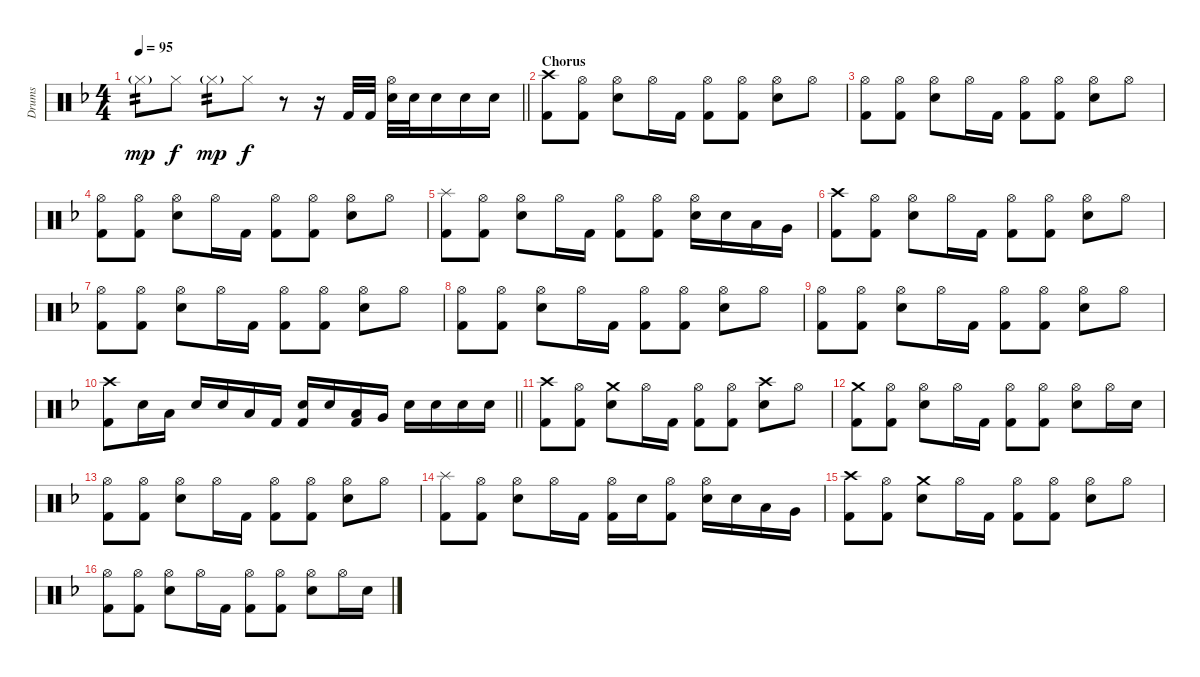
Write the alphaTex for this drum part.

\track ("Drums" "Drums") {instrument percussion}
\staff {score}
\articulation defaults
\ts (4 4)
\tempo 95
\clef neutral
\barLineRight lightlight
\ks f "Hi-Hat (closed)"{g}.8{tp 2 dy mp} "Hi-Hat (closed)".8{dy f} "Hi-Hat (closed)"{g}.8{tp 2 dy mp} "Hi-Hat (closed)".8{dy f}
r.8 r.16 "Kick (hit) 2".32 "Kick (hit) 2".32 ("Hi-Hat (open)" "Electric Snare (hit)").32 "Electric Snare (hit)".32 "Electric Snare (hit)".16 "Electric Snare (hit)".16 "Electric Snare (hit)".16 |
\section ("" "Chorus")
("Crash high (hit)" "Kick (hit) 2").8 ("Hi-Hat (open)" "Kick (hit) 2").8 ("Hi-Hat (open)" "Electric Snare (hit)").8 "Hi-Hat (open)".16 "Kick (hit) 2".16 ("Hi-Hat (open)" "Kick (hit) 2").8 ("Hi-Hat (open)" "Kick (hit) 2").8 ("Hi-Hat (open)" "Electric Snare (hit)").8 "Hi-Hat (open)".8 |
("Hi-Hat (open)" "Kick (hit) 2").8 ("Hi-Hat (open)" "Kick (hit) 2").8 ("Hi-Hat (open)" "Electric Snare (hit)").8 "Hi-Hat (open)".16 "Kick (hit) 2".16 ("Hi-Hat (open)" "Kick (hit) 2").8 ("Hi-Hat (open)" "Kick (hit) 2").8 ("Hi-Hat (open)" "Electric Snare (hit)").8 "Hi-Hat (open)".8 |
("Hi-Hat (open)" "Kick (hit) 2").8 ("Hi-Hat (open)" "Kick (hit) 2").8 ("Hi-Hat (open)" "Electric Snare (hit)").8 "Hi-Hat (open)".16 "Kick (hit) 2".16 ("Hi-Hat (open)" "Kick (hit) 2").8 ("Hi-Hat (open)" "Kick (hit) 2").8 ("Hi-Hat (open)" "Electric Snare (hit)").8 "Hi-Hat (open)".8 |
("Splash (hit)" "Kick (hit) 2").8 ("Hi-Hat (open)" "Kick (hit) 2").8 ("Hi-Hat (open)" "Electric Snare (hit)").8 "Hi-Hat (open)".16 "Kick (hit) 2".16 ("Hi-Hat (open)" "Kick (hit) 2").8 ("Hi-Hat (open)" "Kick (hit) 2").8 ("Hi-Hat (open)" "Electric Snare (hit)").16 "Electric Snare (hit)".16 "Low Tom (hit)".16 "Very Low Tom (hit)".16 |
("Crash high (hit)" "Kick (hit) 2").8 ("Hi-Hat (open)" "Kick (hit) 2").8 ("Hi-Hat (open)" "Electric Snare (hit)").8 "Hi-Hat (open)".16 "Kick (hit) 2".16 ("Hi-Hat (open)" "Kick (hit) 2").8 ("Hi-Hat (open)" "Kick (hit) 2").8 ("Hi-Hat (open)" "Electric Snare (hit)").8 "Hi-Hat (open)".8 |
("Hi-Hat (open)" "Kick (hit) 2").8 ("Hi-Hat (open)" "Kick (hit) 2").8 ("Hi-Hat (open)" "Electric Snare (hit)").8 "Hi-Hat (open)".16 "Kick (hit) 2".16 ("Hi-Hat (open)" "Kick (hit) 2").8 ("Hi-Hat (open)" "Kick (hit) 2").8 ("Hi-Hat (open)" "Electric Snare (hit)").8 "Hi-Hat (open)".8 |
("Hi-Hat (open)" "Kick (hit) 2").8 ("Hi-Hat (open)" "Kick (hit) 2").8 ("Hi-Hat (open)" "Electric Snare (hit)").8 "Hi-Hat (open)".16 "Kick (hit) 2".16 ("Hi-Hat (open)" "Kick (hit) 2").8 ("Hi-Hat (open)" "Kick (hit) 2").8 ("Hi-Hat (open)" "Electric Snare (hit)").8 "Hi-Hat (open)".8 |
("Hi-Hat (open)" "Kick (hit) 2").8 ("Hi-Hat (open)" "Kick (hit) 2").8 ("Hi-Hat (open)" "Electric Snare (hit)").8 "Hi-Hat (open)".16 "Kick (hit) 2".16 ("Hi-Hat (open)" "Kick (hit) 2").8 ("Hi-Hat (open)" "Kick (hit) 2").8 ("Hi-Hat (open)" "Electric Snare (hit)").8 "Hi-Hat (open)".8 |
\barLineRight lightlight
("Crash high (hit)" "Kick (hit) 2").8 "Electric Snare (hit)".16 "Low Tom (hit)".16 "Electric Snare (hit)".16 "Electric Snare (hit)".16 "Low Tom (hit)".16 "Kick (hit) 2".16 ("Electric Snare (hit)" "Kick (hit) 2").16 "Electric Snare (hit)".16 ("Low Tom (hit)" "Kick (hit) 2").16 "Very Low Tom (hit)".16 "Electric Snare (hit)".16 "Electric Snare (hit)".16 "Electric Snare (hit)".16 "Electric Snare (hit)".16 |
\section ("" "")
("Crash high (hit)" "Kick (hit) 2").8 ("Hi-Hat (open)" "Kick (hit) 2").8 ("Crash medium (hit)" "Electric Snare (hit)").8 "Hi-Hat (open)".16 "Kick (hit) 2".16 ("Hi-Hat (open)" "Kick (hit) 2").8 ("Hi-Hat (open)" "Kick (hit) 2").8 ("Crash high (hit)" "Electric Snare (hit)").8 "Hi-Hat (open)".8 |
("Crash medium (hit)" "Kick (hit) 2").8 ("Hi-Hat (open)" "Kick (hit) 2").8 ("Hi-Hat (open)" "Electric Snare (hit)").8 "Hi-Hat (open)".16 "Kick (hit) 2".16 ("Hi-Hat (open)" "Kick (hit) 2").8 ("Hi-Hat (open)" "Kick (hit) 2").8 ("Hi-Hat (open)" "Electric Snare (hit)").8 "Hi-Hat (open)".16 "Electric Snare (hit)".16 |
("Hi-Hat (open)" "Kick (hit) 2").8 ("Hi-Hat (open)" "Kick (hit) 2").8 ("Hi-Hat (open)" "Electric Snare (hit)").8 "Hi-Hat (open)".16 "Kick (hit) 2".16 ("Hi-Hat (open)" "Kick (hit) 2").8 ("Hi-Hat (open)" "Kick (hit) 2").8 ("Hi-Hat (open)" "Electric Snare (hit)").8 "Hi-Hat (open)".8 |
("Splash (hit)" "Kick (hit) 2").8 ("Hi-Hat (open)" "Kick (hit) 2").8 ("Hi-Hat (open)" "Electric Snare (hit)").8 "Hi-Hat (open)".16 "Kick (hit) 2".16 ("Hi-Hat (open)" "Kick (hit) 2").16 "Electric Snare (hit)".16 ("Hi-Hat (open)" "Kick (hit) 2").8 ("Hi-Hat (open)" "Electric Snare (hit)").16 "Electric Snare (hit)".16 "Low Tom (hit)".16 "Very Low Tom (hit)".16 |
("Crash high (hit)" "Kick (hit) 2").8 ("Hi-Hat (open)" "Kick (hit) 2").8 ("Crash medium (hit)" "Electric Snare (hit)").8 "Hi-Hat (open)".16 "Kick (hit) 2".16 ("Hi-Hat (open)" "Kick (hit) 2").8 ("Hi-Hat (open)" "Kick (hit) 2").8 ("Hi-Hat (open)" "Electric Snare (hit)").8 "Hi-Hat (open)".8 |
("Hi-Hat (open)" "Kick (hit) 2").8 ("Hi-Hat (open)" "Kick (hit) 2").8 ("Hi-Hat (open)" "Electric Snare (hit)").8 "Hi-Hat (open)".16 "Kick (hit) 2".16 ("Hi-Hat (open)" "Kick (hit) 2").8 ("Hi-Hat (open)" "Kick (hit) 2").8 ("Hi-Hat (open)" "Electric Snare (hit)").8 "Hi-Hat (open)".16 "Electric Snare (hit)".16
